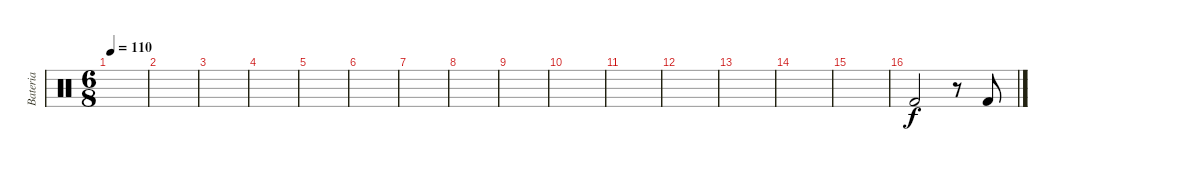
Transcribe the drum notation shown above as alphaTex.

\track ("Bateria" "Bateria") {instrument percussion}
\staff {score}
\articulation defaults
\ts (6 8)
\tempo 110
\clef neutral
\ks c
|
|
|
|
|
|
|
|
|
|
|
|
|
|
|
"Kick (hit) 2".2 r.8 "Kick (hit) 2".8
